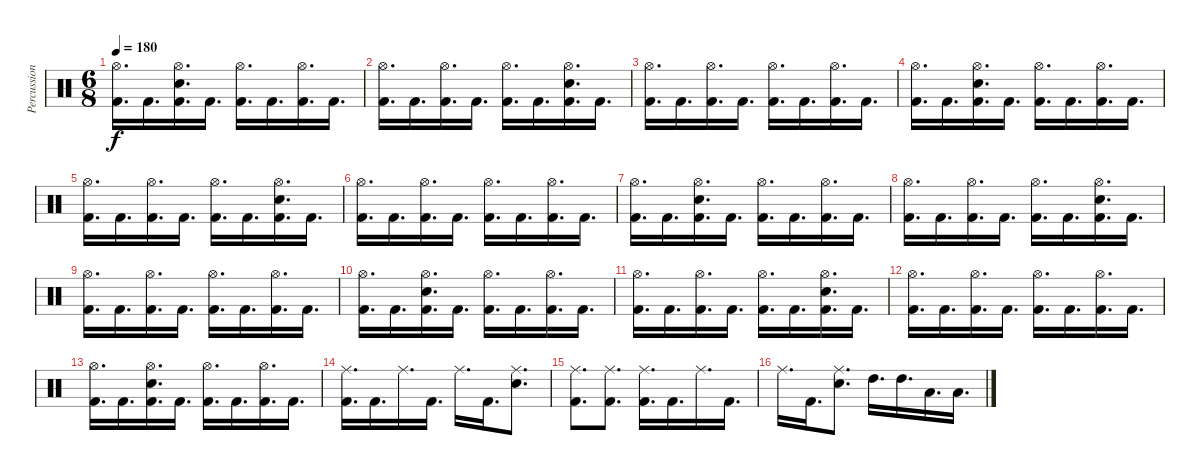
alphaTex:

\track ("Percussion" "Percussion") {instrument percussion}
\staff {score}
\articulation defaults
\ts (6 8)
\tempo 180
\clef neutral
\ks c
("Hi-Hat (open)" "Kick (hit) 2").16{d dy f} "Kick (hit) 2".16{d} ("Hi-Hat (open)" "Electric Snare (hit)" "Kick (hit) 2").16{d} "Kick (hit) 2".16{d} ("Hi-Hat (open)" "Kick (hit) 2").16{d} "Kick (hit) 2".16{d} ("Hi-Hat (open)" "Kick (hit) 2").16{d} "Kick (hit) 2".16{d} |
("Hi-Hat (open)" "Kick (hit) 2").16{d} "Kick (hit) 2".16{d} ("Hi-Hat (open)" "Kick (hit) 2").16{d} "Kick (hit) 2".16{d} ("Hi-Hat (open)" "Kick (hit) 2").16{d} "Kick (hit) 2".16{d} ("Hi-Hat (open)" "Electric Snare (hit)" "Kick (hit) 2").16{d} "Kick (hit) 2".16{d} |
("Hi-Hat (open)" "Kick (hit) 2").16{d} "Kick (hit) 2".16{d} ("Hi-Hat (open)" "Kick (hit) 2").16{d} "Kick (hit) 2".16{d} ("Hi-Hat (open)" "Kick (hit) 2").16{d} "Kick (hit) 2".16{d} ("Hi-Hat (open)" "Kick (hit) 2").16{d} "Kick (hit) 2".16{d} |
("Hi-Hat (open)" "Kick (hit) 2").16{d} "Kick (hit) 2".16{d} ("Hi-Hat (open)" "Electric Snare (hit)" "Kick (hit) 2").16{d} "Kick (hit) 2".16{d} ("Hi-Hat (open)" "Kick (hit) 2").16{d} "Kick (hit) 2".16{d} ("Hi-Hat (open)" "Kick (hit) 2").16{d} "Kick (hit) 2".16{d} |
("Hi-Hat (open)" "Kick (hit) 2").16{d} "Kick (hit) 2".16{d} ("Hi-Hat (open)" "Kick (hit) 2").16{d} "Kick (hit) 2".16{d} ("Hi-Hat (open)" "Kick (hit) 2").16{d} "Kick (hit) 2".16{d} ("Hi-Hat (open)" "Electric Snare (hit)" "Kick (hit) 2").16{d} "Kick (hit) 2".16{d} |
("Hi-Hat (open)" "Kick (hit) 2").16{d} "Kick (hit) 2".16{d} ("Hi-Hat (open)" "Kick (hit) 2").16{d} "Kick (hit) 2".16{d} ("Hi-Hat (open)" "Kick (hit) 2").16{d} "Kick (hit) 2".16{d} ("Hi-Hat (open)" "Kick (hit) 2").16{d} "Kick (hit) 2".16{d} |
("Hi-Hat (open)" "Kick (hit) 2").16{d} "Kick (hit) 2".16{d} ("Hi-Hat (open)" "Electric Snare (hit)" "Kick (hit) 2").16{d} "Kick (hit) 2".16{d} ("Hi-Hat (open)" "Kick (hit) 2").16{d} "Kick (hit) 2".16{d} ("Hi-Hat (open)" "Kick (hit) 2").16{d} "Kick (hit) 2".16{d} |
("Hi-Hat (open)" "Kick (hit) 2").16{d} "Kick (hit) 2".16{d} ("Hi-Hat (open)" "Kick (hit) 2").16{d} "Kick (hit) 2".16{d} ("Hi-Hat (open)" "Kick (hit) 2").16{d} "Kick (hit) 2".16{d} ("Hi-Hat (open)" "Electric Snare (hit)" "Kick (hit) 2").16{d} "Kick (hit) 2".16{d} |
("Hi-Hat (open)" "Kick (hit) 2").16{d} "Kick (hit) 2".16{d} ("Hi-Hat (open)" "Kick (hit) 2").16{d} "Kick (hit) 2".16{d} ("Hi-Hat (open)" "Kick (hit) 2").16{d} "Kick (hit) 2".16{d} ("Hi-Hat (open)" "Kick (hit) 2").16{d} "Kick (hit) 2".16{d} |
("Hi-Hat (open)" "Kick (hit) 2").16{d} "Kick (hit) 2".16{d} ("Hi-Hat (open)" "Electric Snare (hit)" "Kick (hit) 2").16{d} "Kick (hit) 2".16{d} ("Hi-Hat (open)" "Kick (hit) 2").16{d} "Kick (hit) 2".16{d} ("Hi-Hat (open)" "Kick (hit) 2").16{d} "Kick (hit) 2".16{d} |
("Hi-Hat (open)" "Kick (hit) 2").16{d} "Kick (hit) 2".16{d} ("Hi-Hat (open)" "Kick (hit) 2").16{d} "Kick (hit) 2".16{d} ("Hi-Hat (open)" "Kick (hit) 2").16{d} "Kick (hit) 2".16{d} ("Hi-Hat (open)" "Electric Snare (hit)" "Kick (hit) 2").16{d} "Kick (hit) 2".16{d} |
("Hi-Hat (open)" "Kick (hit) 2").16{d} "Kick (hit) 2".16{d} ("Hi-Hat (open)" "Kick (hit) 2").16{d} "Kick (hit) 2".16{d} ("Hi-Hat (open)" "Kick (hit) 2").16{d} "Kick (hit) 2".16{d} ("Hi-Hat (open)" "Kick (hit) 2").16{d} "Kick (hit) 2".16{d} |
("Hi-Hat (open)" "Kick (hit) 2").16{d} "Kick (hit) 2".16{d} ("Hi-Hat (open)" "Electric Snare (hit)" "Kick (hit) 2").16{d} "Kick (hit) 2".16{d} ("Hi-Hat (open)" "Kick (hit) 2").16{d} "Kick (hit) 2".16{d} ("Hi-Hat (open)" "Kick (hit) 2").16{d} "Kick (hit) 2".16{d} |
("Ride (middle)" "Kick (hit) 2").16{d} "Kick (hit) 2".16{d} "Ride (middle)".16{d} "Kick (hit) 2".16{d} "Ride (middle)".16{d} "Kick (hit) 2".16{d} ("Ride (middle)" "Electric Snare (hit)").8{d} |
("Ride (middle)" "Kick (hit) 2").8{d} ("Ride (middle)" "Kick (hit) 2").8{d} ("Ride (middle)" "Kick (hit) 2").16{d} "Kick (hit) 2".16{d} "Ride (middle)".16{d} "Kick (hit) 2".16{d} |
"Ride (middle)".16{d} "Kick (hit) 2".16{d} ("Ride (middle)" "Electric Snare (hit)").8{d} "High Tom (hit)".16{d} "High Tom (hit)".16{d} "Low Tom (hit)".16{d} "Low Tom (hit)".16{d}
